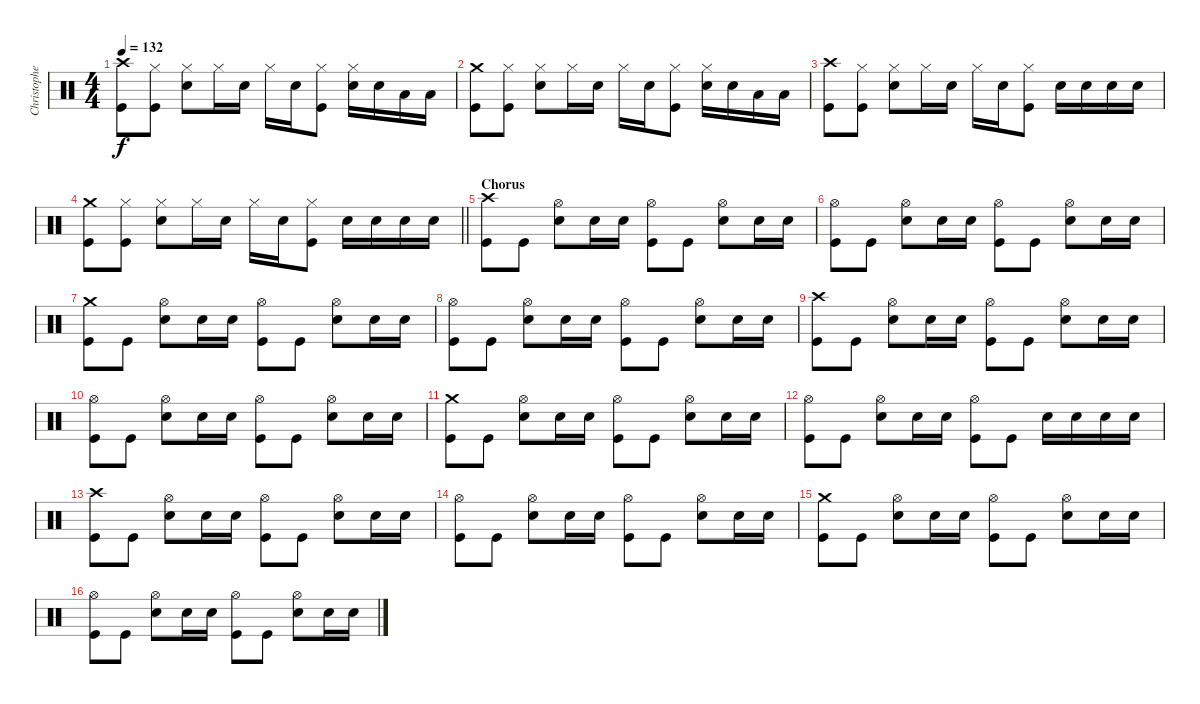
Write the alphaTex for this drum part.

\track ("Christopher - Drums" "Christophe") {instrument percussion}
\staff {score}
\articulation defaults
\ts (4 4)
\tempo 132
\clef neutral
\ks c
("Crash high (hit)" "Kick (hit)").8{dy f} ("Hi-Hat (closed)" "Kick (hit)").8 ("Hi-Hat (closed)" "Snare (hit) 2").8 "Hi-Hat (closed)".16 "Snare (hit) 2".16 "Hi-Hat (closed)".16 "Snare (hit) 2".16 ("Hi-Hat (closed)" "Kick (hit)").8 ("Hi-Hat (closed)" "Snare (hit) 2").16 "Snare (hit) 2".16 "Low Tom (hit)".16 "Low Tom (hit)".16 |
("Crash medium (hit)" "Kick (hit)").8 ("Hi-Hat (closed)" "Kick (hit)").8 ("Hi-Hat (closed)" "Snare (hit) 2").8 "Hi-Hat (closed)".16 "Snare (hit) 2".16 "Hi-Hat (closed)".16 "Snare (hit) 2".16 ("Hi-Hat (closed)" "Kick (hit)").8 ("Hi-Hat (closed)" "Snare (hit) 2").16 "Snare (hit) 2".16 "Low Tom (hit)".16 "Low Tom (hit)".16 |
("Crash high (hit)" "Kick (hit)").8 ("Hi-Hat (closed)" "Kick (hit)").8 ("Hi-Hat (closed)" "Snare (hit) 2").8 "Hi-Hat (closed)".16 "Snare (hit) 2".16 "Hi-Hat (closed)".16 "Snare (hit) 2".16 ("Hi-Hat (closed)" "Kick (hit)").8 "Snare (hit) 2".16 "Snare (hit) 2".16 "Snare (hit) 2".16 "Snare (hit) 2".16 |
\barLineRight lightlight
("Crash medium (hit)" "Kick (hit)").8 ("Hi-Hat (closed)" "Kick (hit)").8 ("Hi-Hat (closed)" "Snare (hit) 2").8 "Hi-Hat (closed)".16 "Snare (hit) 2".16 "Hi-Hat (closed)".16 "Snare (hit) 2".16 ("Hi-Hat (closed)" "Kick (hit)").8 "Snare (hit) 2".16 "Snare (hit) 2".16 "Snare (hit) 2".16 "Snare (hit) 2".16 |
\section ("" "Chorus")
("Crash high (hit)" "Kick (hit)").8 "Kick (hit)".8 ("Hi-Hat (open)" "Snare (hit) 2").8 "Snare (hit) 2".16 "Snare (hit) 2".16 ("Hi-Hat (open)" "Kick (hit)").8 "Kick (hit)".8 ("Hi-Hat (open)" "Snare (hit) 2").8 "Snare (hit) 2".16 "Snare (hit) 2".16 |
("Hi-Hat (open)" "Kick (hit)").8 "Kick (hit)".8 ("Hi-Hat (open)" "Snare (hit) 2").8 "Snare (hit) 2".16 "Snare (hit) 2".16 ("Hi-Hat (open)" "Kick (hit)").8 "Kick (hit)".8 ("Hi-Hat (open)" "Snare (hit) 2").8 "Snare (hit) 2".16 "Snare (hit) 2".16 |
("Crash medium (hit)" "Kick (hit)").8 "Kick (hit)".8 ("Hi-Hat (open)" "Snare (hit) 2").8 "Snare (hit) 2".16 "Snare (hit) 2".16 ("Hi-Hat (open)" "Kick (hit)").8 "Kick (hit)".8 ("Hi-Hat (open)" "Snare (hit) 2").8 "Snare (hit) 2".16 "Snare (hit) 2".16 |
("Hi-Hat (open)" "Kick (hit)").8 "Kick (hit)".8 ("Hi-Hat (open)" "Snare (hit) 2").8 "Snare (hit) 2".16 "Snare (hit) 2".16 ("Hi-Hat (open)" "Kick (hit)").8 "Kick (hit)".8 ("Hi-Hat (open)" "Snare (hit) 2").8 "Snare (hit) 2".16 "Snare (hit) 2".16 |
("Crash high (hit)" "Kick (hit)").8 "Kick (hit)".8 ("Hi-Hat (open)" "Snare (hit) 2").8 "Snare (hit) 2".16 "Snare (hit) 2".16 ("Hi-Hat (open)" "Kick (hit)").8 "Kick (hit)".8 ("Hi-Hat (open)" "Snare (hit) 2").8 "Snare (hit) 2".16 "Snare (hit) 2".16 |
("Hi-Hat (open)" "Kick (hit)").8 "Kick (hit)".8 ("Hi-Hat (open)" "Snare (hit) 2").8 "Snare (hit) 2".16 "Snare (hit) 2".16 ("Hi-Hat (open)" "Kick (hit)").8 "Kick (hit)".8 ("Hi-Hat (open)" "Snare (hit) 2").8 "Snare (hit) 2".16 "Snare (hit) 2".16 |
("Crash medium (hit)" "Kick (hit)").8 "Kick (hit)".8 ("Hi-Hat (open)" "Snare (hit) 2").8 "Snare (hit) 2".16 "Snare (hit) 2".16 ("Hi-Hat (open)" "Kick (hit)").8 "Kick (hit)".8 ("Hi-Hat (open)" "Snare (hit) 2").8 "Snare (hit) 2".16 "Snare (hit) 2".16 |
("Hi-Hat (open)" "Kick (hit)").8 "Kick (hit)".8 ("Hi-Hat (open)" "Snare (hit) 2").8 "Snare (hit) 2".16 "Snare (hit) 2".16 ("Hi-Hat (open)" "Kick (hit)").8 "Kick (hit)".8 "Snare (hit) 2".16 "Snare (hit) 2".16 "Snare (hit) 2".16 "Snare (hit) 2".16 |
("Crash high (hit)" "Kick (hit)").8 "Kick (hit)".8 ("Hi-Hat (open)" "Snare (hit) 2").8 "Snare (hit) 2".16 "Snare (hit) 2".16 ("Hi-Hat (open)" "Kick (hit)").8 "Kick (hit)".8 ("Hi-Hat (open)" "Snare (hit) 2").8 "Snare (hit) 2".16 "Snare (hit) 2".16 |
("Hi-Hat (open)" "Kick (hit)").8 "Kick (hit)".8 ("Hi-Hat (open)" "Snare (hit) 2").8 "Snare (hit) 2".16 "Snare (hit) 2".16 ("Hi-Hat (open)" "Kick (hit)").8 "Kick (hit)".8 ("Hi-Hat (open)" "Snare (hit) 2").8 "Snare (hit) 2".16 "Snare (hit) 2".16 |
("Crash medium (hit)" "Kick (hit)").8 "Kick (hit)".8 ("Hi-Hat (open)" "Snare (hit) 2").8 "Snare (hit) 2".16 "Snare (hit) 2".16 ("Hi-Hat (open)" "Kick (hit)").8 "Kick (hit)".8 ("Hi-Hat (open)" "Snare (hit) 2").8 "Snare (hit) 2".16 "Snare (hit) 2".16 |
("Hi-Hat (open)" "Kick (hit)").8 "Kick (hit)".8 ("Hi-Hat (open)" "Snare (hit) 2").8 "Snare (hit) 2".16 "Snare (hit) 2".16 ("Hi-Hat (open)" "Kick (hit)").8 "Kick (hit)".8 ("Hi-Hat (open)" "Snare (hit) 2").8 "Snare (hit) 2".16 "Snare (hit) 2".16
